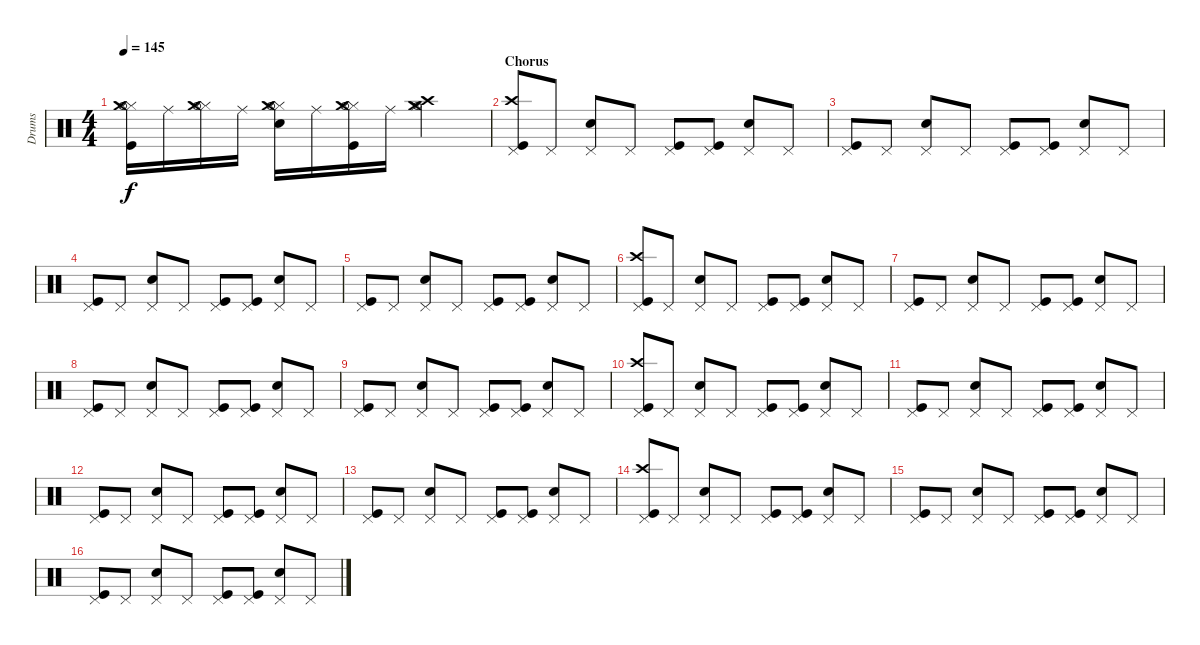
\track ("Drums" "Drums") {instrument percussion}
\staff {score}
\articulation defaults
\ts (4 4)
\tempo 145
\clef neutral
\ks c
("Hi-Hat (closed)" "Hi-Hat (open)" "Crash medium (hit)" "Kick (hit)").16{dy f} "Ride (middle)".16 ("Hi-Hat (closed)" "Hi-Hat (open)" "Crash medium (hit)").16 "Ride (middle)".16 ("Hi-Hat (closed)" "Snare (hit) 2" "Hi-Hat (open)" "Crash medium (hit)").16 "Ride (middle)".16 ("Hi-Hat (closed)" "Hi-Hat (open)" "Crash medium (hit)" "Kick (hit)").16 "Ride (middle)".16 ("Hi-Hat (closed)" "Crash high (hit)" "Hi-Hat (open)" "Crash medium (hit)").2 |
\section ("" "Chorus")
("Crash high (hit)" "Pedal Hi-Hat (hit)" "Kick (hit)").8 "Pedal Hi-Hat (hit)".8 ("Pedal Hi-Hat (hit)" "Snare (hit) 2").8 "Pedal Hi-Hat (hit)".8 ("Pedal Hi-Hat (hit)" "Kick (hit)").8 ("Pedal Hi-Hat (hit)" "Kick (hit)").8 ("Pedal Hi-Hat (hit)" "Snare (hit) 2").8 "Pedal Hi-Hat (hit)".8 |
("Pedal Hi-Hat (hit)" "Kick (hit)").8 "Pedal Hi-Hat (hit)".8 ("Pedal Hi-Hat (hit)" "Snare (hit) 2").8 "Pedal Hi-Hat (hit)".8 ("Pedal Hi-Hat (hit)" "Kick (hit)").8 ("Pedal Hi-Hat (hit)" "Kick (hit)").8 ("Pedal Hi-Hat (hit)" "Snare (hit) 2").8 "Pedal Hi-Hat (hit)".8 |
("Pedal Hi-Hat (hit)" "Kick (hit)").8 "Pedal Hi-Hat (hit)".8 ("Pedal Hi-Hat (hit)" "Snare (hit) 2").8 "Pedal Hi-Hat (hit)".8 ("Pedal Hi-Hat (hit)" "Kick (hit)").8 ("Pedal Hi-Hat (hit)" "Kick (hit)").8 ("Pedal Hi-Hat (hit)" "Snare (hit) 2").8 "Pedal Hi-Hat (hit)".8 |
("Pedal Hi-Hat (hit)" "Kick (hit)").8 "Pedal Hi-Hat (hit)".8 ("Pedal Hi-Hat (hit)" "Snare (hit) 2").8 "Pedal Hi-Hat (hit)".8 ("Pedal Hi-Hat (hit)" "Kick (hit)").8 ("Pedal Hi-Hat (hit)" "Kick (hit)").8 ("Pedal Hi-Hat (hit)" "Snare (hit) 2").8 "Pedal Hi-Hat (hit)".8 |
("Crash high (hit)" "Pedal Hi-Hat (hit)" "Kick (hit)").8 "Pedal Hi-Hat (hit)".8 ("Pedal Hi-Hat (hit)" "Snare (hit) 2").8 "Pedal Hi-Hat (hit)".8 ("Pedal Hi-Hat (hit)" "Kick (hit)").8 ("Pedal Hi-Hat (hit)" "Kick (hit)").8 ("Pedal Hi-Hat (hit)" "Snare (hit) 2").8 "Pedal Hi-Hat (hit)".8 |
("Pedal Hi-Hat (hit)" "Kick (hit)").8 "Pedal Hi-Hat (hit)".8 ("Pedal Hi-Hat (hit)" "Snare (hit) 2").8 "Pedal Hi-Hat (hit)".8 ("Pedal Hi-Hat (hit)" "Kick (hit)").8 ("Pedal Hi-Hat (hit)" "Kick (hit)").8 ("Pedal Hi-Hat (hit)" "Snare (hit) 2").8 "Pedal Hi-Hat (hit)".8 |
("Pedal Hi-Hat (hit)" "Kick (hit)").8 "Pedal Hi-Hat (hit)".8 ("Pedal Hi-Hat (hit)" "Snare (hit) 2").8 "Pedal Hi-Hat (hit)".8 ("Pedal Hi-Hat (hit)" "Kick (hit)").8 ("Pedal Hi-Hat (hit)" "Kick (hit)").8 ("Pedal Hi-Hat (hit)" "Snare (hit) 2").8 "Pedal Hi-Hat (hit)".8 |
("Pedal Hi-Hat (hit)" "Kick (hit)").8 "Pedal Hi-Hat (hit)".8 ("Pedal Hi-Hat (hit)" "Snare (hit) 2").8 "Pedal Hi-Hat (hit)".8 ("Pedal Hi-Hat (hit)" "Kick (hit)").8 ("Pedal Hi-Hat (hit)" "Kick (hit)").8 ("Pedal Hi-Hat (hit)" "Snare (hit) 2").8 "Pedal Hi-Hat (hit)".8 |
("Crash high (hit)" "Pedal Hi-Hat (hit)" "Kick (hit)").8 "Pedal Hi-Hat (hit)".8 ("Pedal Hi-Hat (hit)" "Snare (hit) 2").8 "Pedal Hi-Hat (hit)".8 ("Pedal Hi-Hat (hit)" "Kick (hit)").8 ("Pedal Hi-Hat (hit)" "Kick (hit)").8 ("Pedal Hi-Hat (hit)" "Snare (hit) 2").8 "Pedal Hi-Hat (hit)".8 |
("Pedal Hi-Hat (hit)" "Kick (hit)").8 "Pedal Hi-Hat (hit)".8 ("Pedal Hi-Hat (hit)" "Snare (hit) 2").8 "Pedal Hi-Hat (hit)".8 ("Pedal Hi-Hat (hit)" "Kick (hit)").8 ("Pedal Hi-Hat (hit)" "Kick (hit)").8 ("Pedal Hi-Hat (hit)" "Snare (hit) 2").8 "Pedal Hi-Hat (hit)".8 |
("Pedal Hi-Hat (hit)" "Kick (hit)").8 "Pedal Hi-Hat (hit)".8 ("Pedal Hi-Hat (hit)" "Snare (hit) 2").8 "Pedal Hi-Hat (hit)".8 ("Pedal Hi-Hat (hit)" "Kick (hit)").8 ("Pedal Hi-Hat (hit)" "Kick (hit)").8 ("Pedal Hi-Hat (hit)" "Snare (hit) 2").8 "Pedal Hi-Hat (hit)".8 |
("Pedal Hi-Hat (hit)" "Kick (hit)").8 "Pedal Hi-Hat (hit)".8 ("Pedal Hi-Hat (hit)" "Snare (hit) 2").8 "Pedal Hi-Hat (hit)".8 ("Pedal Hi-Hat (hit)" "Kick (hit)").8 ("Pedal Hi-Hat (hit)" "Kick (hit)").8 ("Pedal Hi-Hat (hit)" "Snare (hit) 2").8 "Pedal Hi-Hat (hit)".8 |
("Crash high (hit)" "Pedal Hi-Hat (hit)" "Kick (hit)").8 "Pedal Hi-Hat (hit)".8 ("Pedal Hi-Hat (hit)" "Snare (hit) 2").8 "Pedal Hi-Hat (hit)".8 ("Pedal Hi-Hat (hit)" "Kick (hit)").8 ("Pedal Hi-Hat (hit)" "Kick (hit)").8 ("Pedal Hi-Hat (hit)" "Snare (hit) 2").8 "Pedal Hi-Hat (hit)".8 |
("Pedal Hi-Hat (hit)" "Kick (hit)").8 "Pedal Hi-Hat (hit)".8 ("Pedal Hi-Hat (hit)" "Snare (hit) 2").8 "Pedal Hi-Hat (hit)".8 ("Pedal Hi-Hat (hit)" "Kick (hit)").8 ("Pedal Hi-Hat (hit)" "Kick (hit)").8 ("Pedal Hi-Hat (hit)" "Snare (hit) 2").8 "Pedal Hi-Hat (hit)".8 |
("Pedal Hi-Hat (hit)" "Kick (hit)").8 "Pedal Hi-Hat (hit)".8 ("Pedal Hi-Hat (hit)" "Snare (hit) 2").8 "Pedal Hi-Hat (hit)".8 ("Pedal Hi-Hat (hit)" "Kick (hit)").8 ("Pedal Hi-Hat (hit)" "Kick (hit)").8 ("Pedal Hi-Hat (hit)" "Snare (hit) 2").8 "Pedal Hi-Hat (hit)".8
